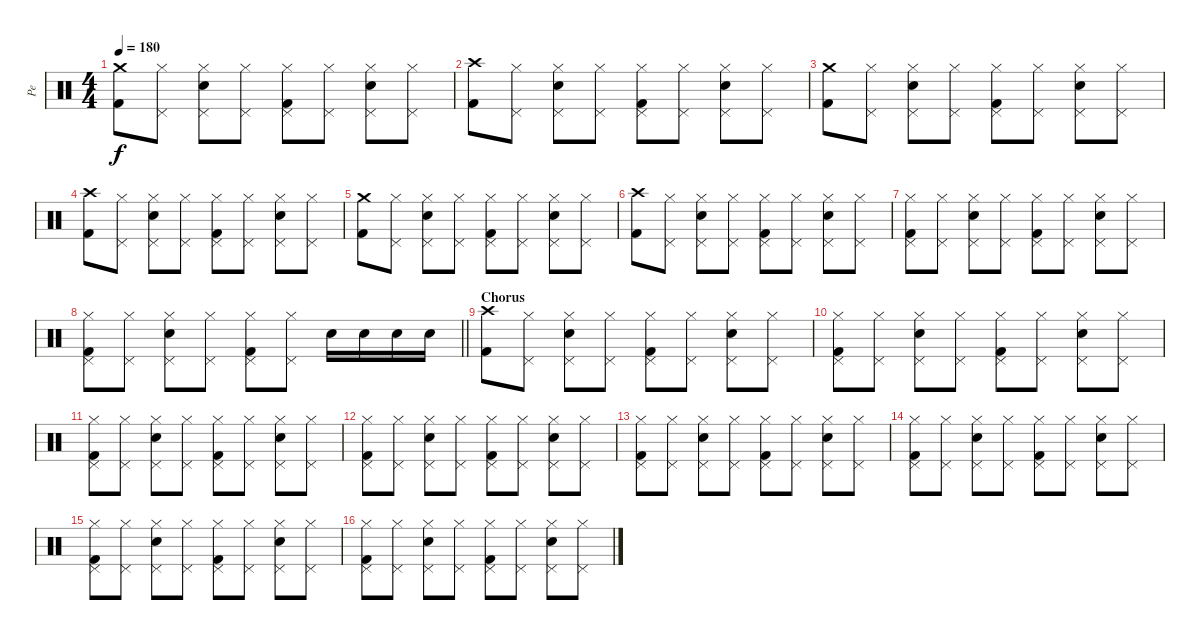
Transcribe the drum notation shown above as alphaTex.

\track ("Pe" "Pe") {instrument percussion}
\staff {score}
\articulation defaults
\ts (4 4)
\tempo 180
\clef neutral
\ks c
("Kick (hit) 2" "Crash medium (hit)").8{dy f} ("Hi-Hat (closed)" "Pedal Hi-Hat (hit)").8 ("Electric Snare (hit)" "Hi-Hat (closed)" "Pedal Hi-Hat (hit)").8 ("Hi-Hat (closed)" "Pedal Hi-Hat (hit)").8 ("Kick (hit) 2" "Hi-Hat (closed)" "Pedal Hi-Hat (hit)").8 ("Hi-Hat (closed)" "Pedal Hi-Hat (hit)").8 ("Electric Snare (hit)" "Hi-Hat (closed)" "Pedal Hi-Hat (hit)").8 ("Hi-Hat (closed)" "Pedal Hi-Hat (hit)").8 |
("Kick (hit) 2" "Crash high (hit)").8 ("Hi-Hat (closed)" "Pedal Hi-Hat (hit)").8 ("Electric Snare (hit)" "Hi-Hat (closed)" "Pedal Hi-Hat (hit)").8 ("Hi-Hat (closed)" "Pedal Hi-Hat (hit)").8 ("Kick (hit) 2" "Hi-Hat (closed)" "Pedal Hi-Hat (hit)").8 ("Hi-Hat (closed)" "Pedal Hi-Hat (hit)").8 ("Electric Snare (hit)" "Hi-Hat (closed)" "Pedal Hi-Hat (hit)").8 ("Hi-Hat (closed)" "Pedal Hi-Hat (hit)").8 |
("Kick (hit) 2" "Crash medium (hit)").8 ("Hi-Hat (closed)" "Pedal Hi-Hat (hit)").8 ("Electric Snare (hit)" "Hi-Hat (closed)" "Pedal Hi-Hat (hit)").8 ("Hi-Hat (closed)" "Pedal Hi-Hat (hit)").8 ("Kick (hit) 2" "Hi-Hat (closed)" "Pedal Hi-Hat (hit)").8 ("Hi-Hat (closed)" "Pedal Hi-Hat (hit)").8 ("Electric Snare (hit)" "Hi-Hat (closed)" "Pedal Hi-Hat (hit)").8 ("Hi-Hat (closed)" "Pedal Hi-Hat (hit)").8 |
("Kick (hit) 2" "Crash high (hit)").8 ("Hi-Hat (closed)" "Pedal Hi-Hat (hit)").8 ("Electric Snare (hit)" "Hi-Hat (closed)" "Pedal Hi-Hat (hit)").8 ("Hi-Hat (closed)" "Pedal Hi-Hat (hit)").8 ("Kick (hit) 2" "Hi-Hat (closed)" "Pedal Hi-Hat (hit)").8 ("Hi-Hat (closed)" "Pedal Hi-Hat (hit)").8 ("Electric Snare (hit)" "Hi-Hat (closed)" "Pedal Hi-Hat (hit)").8 ("Hi-Hat (closed)" "Pedal Hi-Hat (hit)").8 |
("Kick (hit) 2" "Crash medium (hit)").8 ("Hi-Hat (closed)" "Pedal Hi-Hat (hit)").8 ("Electric Snare (hit)" "Hi-Hat (closed)" "Pedal Hi-Hat (hit)").8 ("Hi-Hat (closed)" "Pedal Hi-Hat (hit)").8 ("Kick (hit) 2" "Hi-Hat (closed)" "Pedal Hi-Hat (hit)").8 ("Hi-Hat (closed)" "Pedal Hi-Hat (hit)").8 ("Electric Snare (hit)" "Hi-Hat (closed)" "Pedal Hi-Hat (hit)").8 ("Hi-Hat (closed)" "Pedal Hi-Hat (hit)").8 |
("Kick (hit) 2" "Crash high (hit)").8 ("Hi-Hat (closed)" "Pedal Hi-Hat (hit)").8 ("Electric Snare (hit)" "Hi-Hat (closed)" "Pedal Hi-Hat (hit)").8 ("Hi-Hat (closed)" "Pedal Hi-Hat (hit)").8 ("Kick (hit) 2" "Hi-Hat (closed)" "Pedal Hi-Hat (hit)").8 ("Hi-Hat (closed)" "Pedal Hi-Hat (hit)").8 ("Electric Snare (hit)" "Hi-Hat (closed)" "Pedal Hi-Hat (hit)").8 ("Hi-Hat (closed)" "Pedal Hi-Hat (hit)").8 |
("Kick (hit) 2" "Hi-Hat (closed)" "Pedal Hi-Hat (hit)").8 ("Hi-Hat (closed)" "Pedal Hi-Hat (hit)").8 ("Electric Snare (hit)" "Hi-Hat (closed)" "Pedal Hi-Hat (hit)").8 ("Hi-Hat (closed)" "Pedal Hi-Hat (hit)").8 ("Kick (hit) 2" "Hi-Hat (closed)" "Pedal Hi-Hat (hit)").8 ("Hi-Hat (closed)" "Pedal Hi-Hat (hit)").8 ("Electric Snare (hit)" "Hi-Hat (closed)" "Pedal Hi-Hat (hit)").8 ("Hi-Hat (closed)" "Pedal Hi-Hat (hit)").8 |
\barLineRight lightlight
("Kick (hit) 2" "Hi-Hat (closed)" "Pedal Hi-Hat (hit)").8 ("Hi-Hat (closed)" "Pedal Hi-Hat (hit)").8 ("Electric Snare (hit)" "Hi-Hat (closed)" "Pedal Hi-Hat (hit)").8 ("Hi-Hat (closed)" "Pedal Hi-Hat (hit)").8 ("Kick (hit) 2" "Hi-Hat (closed)" "Pedal Hi-Hat (hit)").8 ("Hi-Hat (closed)" "Pedal Hi-Hat (hit)").8 "Electric Snare (hit)".16 "Electric Snare (hit)".16 "Electric Snare (hit)".16 "Electric Snare (hit)".16 |
\section ("" "Chorus")
("Kick (hit) 2" "Crash high (hit)").8 ("Hi-Hat (closed)" "Pedal Hi-Hat (hit)").8 ("Electric Snare (hit)" "Hi-Hat (closed)" "Pedal Hi-Hat (hit)").8 ("Hi-Hat (closed)" "Pedal Hi-Hat (hit)").8 ("Kick (hit) 2" "Hi-Hat (closed)" "Pedal Hi-Hat (hit)").8 ("Hi-Hat (closed)" "Pedal Hi-Hat (hit)").8 ("Electric Snare (hit)" "Hi-Hat (closed)" "Pedal Hi-Hat (hit)").8 ("Hi-Hat (closed)" "Pedal Hi-Hat (hit)").8 |
("Kick (hit) 2" "Hi-Hat (closed)" "Pedal Hi-Hat (hit)").8 ("Hi-Hat (closed)" "Pedal Hi-Hat (hit)").8 ("Electric Snare (hit)" "Hi-Hat (closed)" "Pedal Hi-Hat (hit)").8 ("Hi-Hat (closed)" "Pedal Hi-Hat (hit)").8 ("Kick (hit) 2" "Hi-Hat (closed)" "Pedal Hi-Hat (hit)").8 ("Hi-Hat (closed)" "Pedal Hi-Hat (hit)").8 ("Electric Snare (hit)" "Hi-Hat (closed)" "Pedal Hi-Hat (hit)").8 ("Hi-Hat (closed)" "Pedal Hi-Hat (hit)").8 |
("Kick (hit) 2" "Hi-Hat (closed)" "Pedal Hi-Hat (hit)").8 ("Hi-Hat (closed)" "Pedal Hi-Hat (hit)").8 ("Electric Snare (hit)" "Hi-Hat (closed)" "Pedal Hi-Hat (hit)").8 ("Hi-Hat (closed)" "Pedal Hi-Hat (hit)").8 ("Kick (hit) 2" "Hi-Hat (closed)" "Pedal Hi-Hat (hit)").8 ("Hi-Hat (closed)" "Pedal Hi-Hat (hit)").8 ("Electric Snare (hit)" "Hi-Hat (closed)" "Pedal Hi-Hat (hit)").8 ("Hi-Hat (closed)" "Pedal Hi-Hat (hit)").8 |
("Kick (hit) 2" "Hi-Hat (closed)" "Pedal Hi-Hat (hit)").8 ("Hi-Hat (closed)" "Pedal Hi-Hat (hit)").8 ("Electric Snare (hit)" "Hi-Hat (closed)" "Pedal Hi-Hat (hit)").8 ("Hi-Hat (closed)" "Pedal Hi-Hat (hit)").8 ("Kick (hit) 2" "Hi-Hat (closed)" "Pedal Hi-Hat (hit)").8 ("Hi-Hat (closed)" "Pedal Hi-Hat (hit)").8 ("Electric Snare (hit)" "Hi-Hat (closed)" "Pedal Hi-Hat (hit)").8 ("Hi-Hat (closed)" "Pedal Hi-Hat (hit)").8 |
("Kick (hit) 2" "Hi-Hat (closed)" "Pedal Hi-Hat (hit)").8 ("Hi-Hat (closed)" "Pedal Hi-Hat (hit)").8 ("Electric Snare (hit)" "Hi-Hat (closed)" "Pedal Hi-Hat (hit)").8 ("Hi-Hat (closed)" "Pedal Hi-Hat (hit)").8 ("Kick (hit) 2" "Hi-Hat (closed)" "Pedal Hi-Hat (hit)").8 ("Hi-Hat (closed)" "Pedal Hi-Hat (hit)").8 ("Electric Snare (hit)" "Hi-Hat (closed)" "Pedal Hi-Hat (hit)").8 ("Hi-Hat (closed)" "Pedal Hi-Hat (hit)").8 |
("Kick (hit) 2" "Hi-Hat (closed)" "Pedal Hi-Hat (hit)").8 ("Hi-Hat (closed)" "Pedal Hi-Hat (hit)").8 ("Electric Snare (hit)" "Hi-Hat (closed)" "Pedal Hi-Hat (hit)").8 ("Hi-Hat (closed)" "Pedal Hi-Hat (hit)").8 ("Kick (hit) 2" "Hi-Hat (closed)" "Pedal Hi-Hat (hit)").8 ("Hi-Hat (closed)" "Pedal Hi-Hat (hit)").8 ("Electric Snare (hit)" "Hi-Hat (closed)" "Pedal Hi-Hat (hit)").8 ("Hi-Hat (closed)" "Pedal Hi-Hat (hit)").8 |
("Kick (hit) 2" "Hi-Hat (closed)" "Pedal Hi-Hat (hit)").8 ("Hi-Hat (closed)" "Pedal Hi-Hat (hit)").8 ("Electric Snare (hit)" "Hi-Hat (closed)" "Pedal Hi-Hat (hit)").8 ("Hi-Hat (closed)" "Pedal Hi-Hat (hit)").8 ("Kick (hit) 2" "Hi-Hat (closed)" "Pedal Hi-Hat (hit)").8 ("Hi-Hat (closed)" "Pedal Hi-Hat (hit)").8 ("Electric Snare (hit)" "Hi-Hat (closed)" "Pedal Hi-Hat (hit)").8 ("Hi-Hat (closed)" "Pedal Hi-Hat (hit)").8 |
("Kick (hit) 2" "Hi-Hat (closed)" "Pedal Hi-Hat (hit)").8 ("Hi-Hat (closed)" "Pedal Hi-Hat (hit)").8 ("Electric Snare (hit)" "Hi-Hat (closed)" "Pedal Hi-Hat (hit)").8 ("Hi-Hat (closed)" "Pedal Hi-Hat (hit)").8 ("Kick (hit) 2" "Hi-Hat (closed)" "Pedal Hi-Hat (hit)").8 ("Hi-Hat (closed)" "Pedal Hi-Hat (hit)").8 ("Electric Snare (hit)" "Hi-Hat (closed)" "Pedal Hi-Hat (hit)").8 ("Hi-Hat (closed)" "Pedal Hi-Hat (hit)").8
